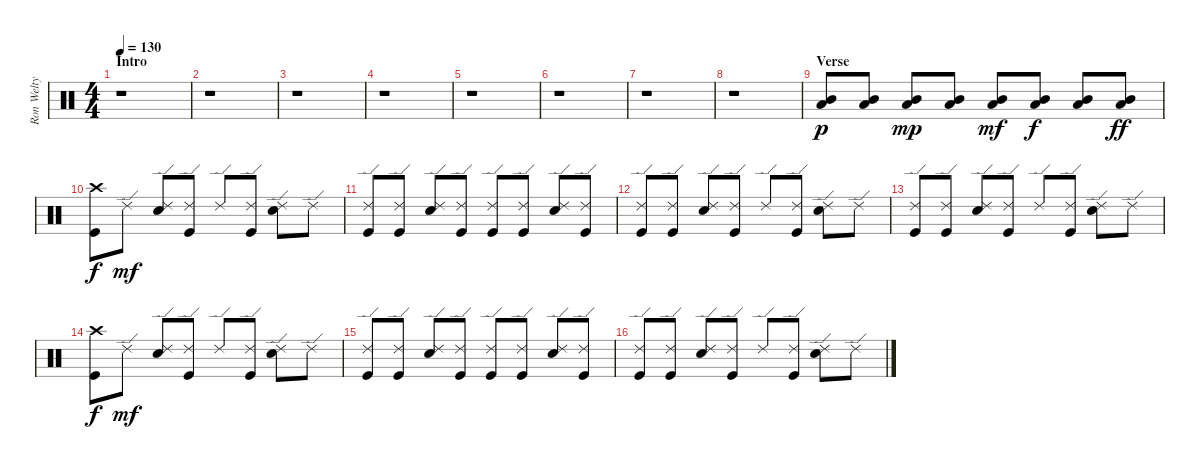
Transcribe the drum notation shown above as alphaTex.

\track ("Ron Welty" "Ron Welty") {instrument percussion}
\staff {score}
\articulation defaults
\ts (4 4)
\section ("" "Intro")
\tempo 130
\clef neutral
\ks c
r.1{dy p} |
r.1 |
r.1 |
r.1 |
r.1 |
r.1 |
r.1 |
r.1 |
\section ("" "Verse")
("Mid Tom (hit)" "Low Floor Tom (hit)").8 ("Mid Tom (hit)" "Low Floor Tom (hit)").8 ("Mid Tom (hit)" "Low Floor Tom (hit)").8{dy mp} ("Mid Tom (hit)" "Low Floor Tom (hit)").8 ("Mid Tom (hit)" "Low Floor Tom (hit)").8{dy mf} ("Mid Tom (hit)" "Low Floor Tom (hit)").8{dy f} ("Mid Tom (hit)" "Low Floor Tom (hit)").8 ("Mid Tom (hit)" "Low Floor Tom (hit)").8{dy ff} |
("Kick (hit)" "Crash high (hit)").8{dy f} "Ride (edge) 2".8{dy mf} ("Electric Snare (hit)" "Ride (edge) 2").8 ("Kick (hit)" "Ride (edge) 2").8 "Ride (edge) 2".8 ("Kick (hit)" "Ride (edge) 2").8 ("Electric Snare (hit)" "Ride (edge) 2").8 "Ride (edge) 2".8 |
("Kick (hit)" "Ride (edge) 2").8 ("Kick (hit)" "Ride (edge) 2").8 ("Electric Snare (hit)" "Ride (edge) 2").8 ("Kick (hit)" "Ride (edge) 2").8 ("Kick (hit)" "Ride (edge) 2").8 ("Kick (hit)" "Ride (edge) 2").8 ("Electric Snare (hit)" "Ride (edge) 2").8 ("Kick (hit)" "Ride (edge) 2").8 |
("Kick (hit)" "Ride (edge) 2").8 ("Kick (hit)" "Ride (edge) 2").8 ("Electric Snare (hit)" "Ride (edge) 2").8 ("Kick (hit)" "Ride (edge) 2").8 "Ride (edge) 2".8 ("Kick (hit)" "Ride (edge) 2").8 ("Electric Snare (hit)" "Ride (edge) 2").8 "Ride (edge) 2".8 |
("Kick (hit)" "Ride (edge) 2").8 ("Kick (hit)" "Ride (edge) 2").8 ("Electric Snare (hit)" "Ride (edge) 2").8 ("Kick (hit)" "Ride (edge) 2").8 "Ride (edge) 2".8 ("Kick (hit)" "Ride (edge) 2").8 ("Electric Snare (hit)" "Ride (edge) 2").8 "Ride (edge) 2".8 |
("Kick (hit)" "Crash high (hit)").8{dy f} "Ride (edge) 2".8{dy mf} ("Electric Snare (hit)" "Ride (edge) 2").8 ("Kick (hit)" "Ride (edge) 2").8 "Ride (edge) 2".8 ("Kick (hit)" "Ride (edge) 2").8 ("Electric Snare (hit)" "Ride (edge) 2").8 "Ride (edge) 2".8 |
("Kick (hit)" "Ride (edge) 2").8 ("Kick (hit)" "Ride (edge) 2").8 ("Electric Snare (hit)" "Ride (edge) 2").8 ("Kick (hit)" "Ride (edge) 2").8 ("Kick (hit)" "Ride (edge) 2").8 ("Kick (hit)" "Ride (edge) 2").8 ("Electric Snare (hit)" "Ride (edge) 2").8 ("Kick (hit)" "Ride (edge) 2").8 |
("Kick (hit)" "Ride (edge) 2").8 ("Kick (hit)" "Ride (edge) 2").8 ("Electric Snare (hit)" "Ride (edge) 2").8 ("Kick (hit)" "Ride (edge) 2").8 "Ride (edge) 2".8 ("Kick (hit)" "Ride (edge) 2").8 ("Electric Snare (hit)" "Ride (edge) 2").8 "Ride (edge) 2".8
